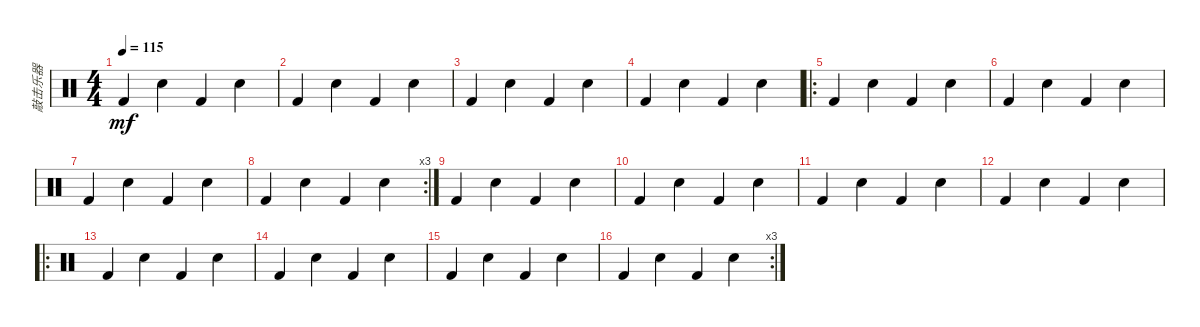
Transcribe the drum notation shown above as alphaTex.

\track ("敲击乐器" "敲击乐器") {instrument percussion}
\staff {score}
\articulation defaults
\ts (4 4)
\tempo 115
\clef neutral
\ks c "Kick (hit) 2".4{dy mf} "Hand Clap (hit)".4 "Kick (hit) 2".4 "Hand Clap (hit)".4
|
"Kick (hit) 2".4 "Hand Clap (hit)".4 "Kick (hit) 2".4 "Hand Clap (hit)".4 |
"Kick (hit) 2".4 "Hand Clap (hit)".4 "Kick (hit) 2".4 "Hand Clap (hit)".4 |
"Kick (hit) 2".4 "Hand Clap (hit)".4 "Kick (hit) 2".4 "Hand Clap (hit)".4 |
\ro "Kick (hit) 2".4 "Hand Clap (hit)".4 "Kick (hit) 2".4 "Hand Clap (hit)".4
|
"Kick (hit) 2".4 "Hand Clap (hit)".4 "Kick (hit) 2".4 "Hand Clap (hit)".4 |
"Kick (hit) 2".4 "Hand Clap (hit)".4 "Kick (hit) 2".4 "Hand Clap (hit)".4 |
\rc 3 "Kick (hit) 2".4 "Hand Clap (hit)".4 "Kick (hit) 2".4 "Hand Clap (hit)".4
|
"Kick (hit) 2".4 "Hand Clap (hit)".4 "Kick (hit) 2".4 "Hand Clap (hit)".4 |
"Kick (hit) 2".4 "Hand Clap (hit)".4 "Kick (hit) 2".4 "Hand Clap (hit)".4 |
"Kick (hit) 2".4 "Hand Clap (hit)".4 "Kick (hit) 2".4 "Hand Clap (hit)".4 |
"Kick (hit) 2".4 "Hand Clap (hit)".4 "Kick (hit) 2".4 "Hand Clap (hit)".4 |
\ro "Kick (hit) 2".4 "Hand Clap (hit)".4 "Kick (hit) 2".4 "Hand Clap (hit)".4
|
"Kick (hit) 2".4 "Hand Clap (hit)".4 "Kick (hit) 2".4 "Hand Clap (hit)".4 |
"Kick (hit) 2".4 "Hand Clap (hit)".4 "Kick (hit) 2".4 "Hand Clap (hit)".4 |
\rc 3 "Kick (hit) 2".4 "Hand Clap (hit)".4 "Kick (hit) 2".4 "Hand Clap (hit)".4
